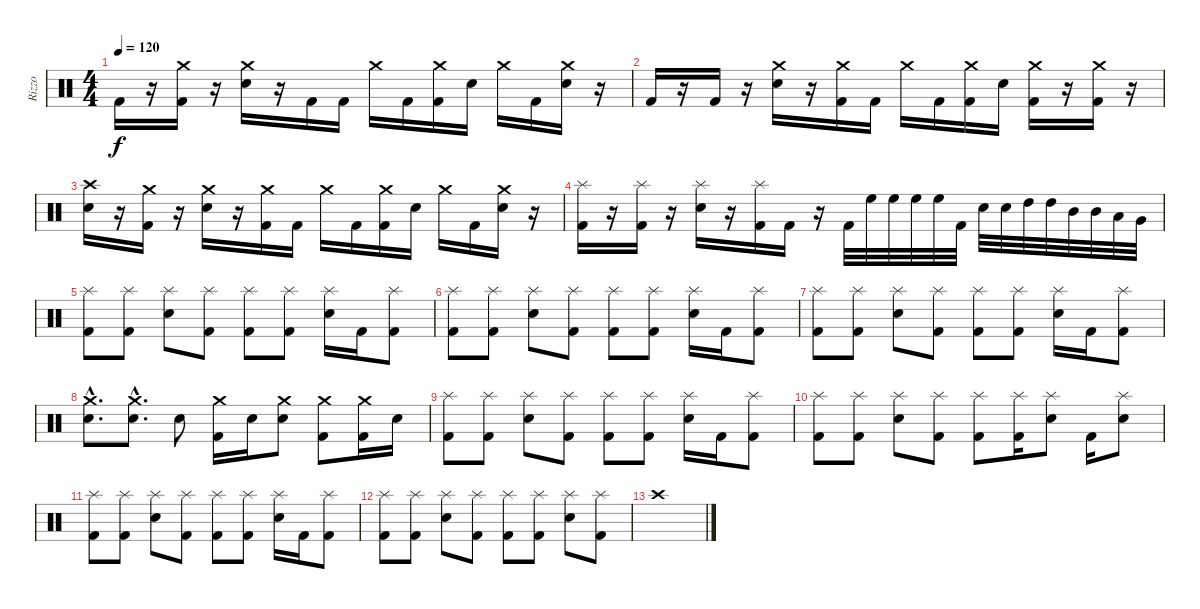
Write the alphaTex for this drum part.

\track ("Rizzo" "Rizzo") {instrument percussion}
\staff {score}
\articulation defaults
\ts (4 4)
\tempo 120
\clef neutral
\ks c "Kick (hit) 2".16{dy f}
r.16 ("Kick (hit) 2" "Crash medium (hit)").16 r.16 ("Electric Snare (hit)" "Crash medium (hit)").16 r.16 "Kick (hit) 2".16 "Kick (hit) 2".16 "Crash medium (hit)".16 "Kick (hit) 2".16 ("Kick (hit) 2" "Crash medium (hit)").16 "Electric Snare (hit)".16 "Crash medium (hit)".16 "Kick (hit) 2".16 ("Electric Snare (hit)" "Crash medium (hit)").16 r.16 |
"Kick (hit) 2".16 r.16 "Kick (hit) 2".16 r.16 ("Electric Snare (hit)" "Crash medium (hit)").16 r.16 ("Kick (hit) 2" "Crash medium (hit)").16 "Kick (hit) 2".16 "Crash medium (hit)".16 "Kick (hit) 2".16 ("Kick (hit) 2" "Crash medium (hit)").16 "Electric Snare (hit)".16 ("Kick (hit) 2" "Crash medium (hit)").16 r.16 ("Kick (hit) 2" "Crash medium (hit)").16 r.16 |
("Electric Snare (hit)" "Crash high (hit)").16 r.16 ("Kick (hit) 2" "Crash medium (hit)").16 r.16 ("Electric Snare (hit)" "Crash medium (hit)").16 r.16 ("Kick (hit) 2" "Crash medium (hit)").16 "Kick (hit) 2".16 "Crash medium (hit)".16 "Kick (hit) 2".16 ("Kick (hit) 2" "Crash medium (hit)").16 "Electric Snare (hit)".16 "Crash medium (hit)".16 "Kick (hit) 2".16 ("Electric Snare (hit)" "Crash medium (hit)").16 r.16 |
("Kick (hit) 2" "Splash (hit)").16 r.16 ("Kick (hit) 2" "Splash (hit)").16 r.16 ("Electric Snare (hit)" "Splash (hit)").16 r.16 ("Kick (hit) 2" "Splash (hit)").16 "Kick (hit) 2".16 r.16 "Kick (hit) 2".32 "High Floor Tom (hit)".32 "High Floor Tom (hit)".32 "High Floor Tom (hit)".32 "High Floor Tom (hit)".32 "Kick (hit) 2".32 "Electric Snare (hit)".32 "Electric Snare (hit)".32 "High Tom (hit)".32 "High Tom (hit)".32 "Mid Tom (hit)".32 "Mid Tom (hit)".32 "Low Tom (hit)".32 "Very Low Tom (hit)".32 |
("Kick (hit) 2" "Splash (hit)").8 ("Kick (hit) 2" "Splash (hit)").8 ("Electric Snare (hit)" "Splash (hit)").8 ("Kick (hit) 2" "Splash (hit)").8 ("Kick (hit) 2" "Splash (hit)").8 ("Kick (hit) 2" "Splash (hit)").8 ("Electric Snare (hit)" "Splash (hit)").16 "Kick (hit) 2".16 ("Kick (hit) 2" "Splash (hit)").8 |
("Kick (hit) 2" "Splash (hit)").8 ("Kick (hit) 2" "Splash (hit)").8 ("Electric Snare (hit)" "Splash (hit)").8 ("Kick (hit) 2" "Splash (hit)").8 ("Kick (hit) 2" "Splash (hit)").8 ("Kick (hit) 2" "Splash (hit)").8 ("Electric Snare (hit)" "Splash (hit)").16 "Kick (hit) 2".16 ("Kick (hit) 2" "Splash (hit)").8 |
("Kick (hit) 2" "Splash (hit)").8 ("Kick (hit) 2" "Splash (hit)").8 ("Electric Snare (hit)" "Splash (hit)").8 ("Kick (hit) 2" "Splash (hit)").8 ("Kick (hit) 2" "Splash (hit)").8 ("Kick (hit) 2" "Splash (hit)").8 ("Electric Snare (hit)" "Splash (hit)").16 "Kick (hit) 2".16 ("Kick (hit) 2" "Splash (hit)").8 |
("Electric Snare (hit)"{hac} "Crash medium (hit)"{hac}).8{d} ("Electric Snare (hit)"{hac} "Crash medium (hit)"{hac}).8{d} "Electric Snare (hit)".8 ("Kick (hit) 2" "Crash medium (hit)").16 "Electric Snare (hit)".16 ("Electric Snare (hit)" "Crash medium (hit)").8 ("Kick (hit) 2" "Crash medium (hit)").8 ("Kick (hit) 2" "Crash medium (hit)").16 "Electric Snare (hit)".16 |
("Kick (hit) 2" "Splash (hit)").8 ("Kick (hit) 2" "Splash (hit)").8 ("Electric Snare (hit)" "Splash (hit)").8 ("Kick (hit) 2" "Splash (hit)").8 ("Kick (hit) 2" "Splash (hit)").8 ("Kick (hit) 2" "Splash (hit)").8 ("Electric Snare (hit)" "Splash (hit)").16 "Kick (hit) 2".16 ("Kick (hit) 2" "Splash (hit)").8 |
("Kick (hit) 2" "Splash (hit)").8 ("Kick (hit) 2" "Splash (hit)").8 ("Electric Snare (hit)" "Splash (hit)").8 ("Kick (hit) 2" "Splash (hit)").8 ("Kick (hit) 2" "Splash (hit)").8 ("Kick (hit) 2" "Splash (hit)").16 ("Electric Snare (hit)" "Splash (hit)").8 "Kick (hit) 2".16 ("Electric Snare (hit)" "Splash (hit)").8 |
("Kick (hit) 2" "Splash (hit)").8 ("Kick (hit) 2" "Splash (hit)").8 ("Electric Snare (hit)" "Splash (hit)").8 ("Kick (hit) 2" "Splash (hit)").8 ("Kick (hit) 2" "Splash (hit)").8 ("Kick (hit) 2" "Splash (hit)").8 ("Electric Snare (hit)" "Splash (hit)").16 "Kick (hit) 2".16 ("Kick (hit) 2" "Splash (hit)").8 |
("Kick (hit) 2" "Splash (hit)").8 ("Kick (hit) 2" "Splash (hit)").8 ("Electric Snare (hit)" "Splash (hit)").8 ("Kick (hit) 2" "Splash (hit)").8 ("Kick (hit) 2" "Splash (hit)").8 ("Kick (hit) 2" "Splash (hit)").8 ("Electric Snare (hit)" "Splash (hit)").8 ("Kick (hit) 2" "Splash (hit)").8 |
"Crash high (hit)".1
